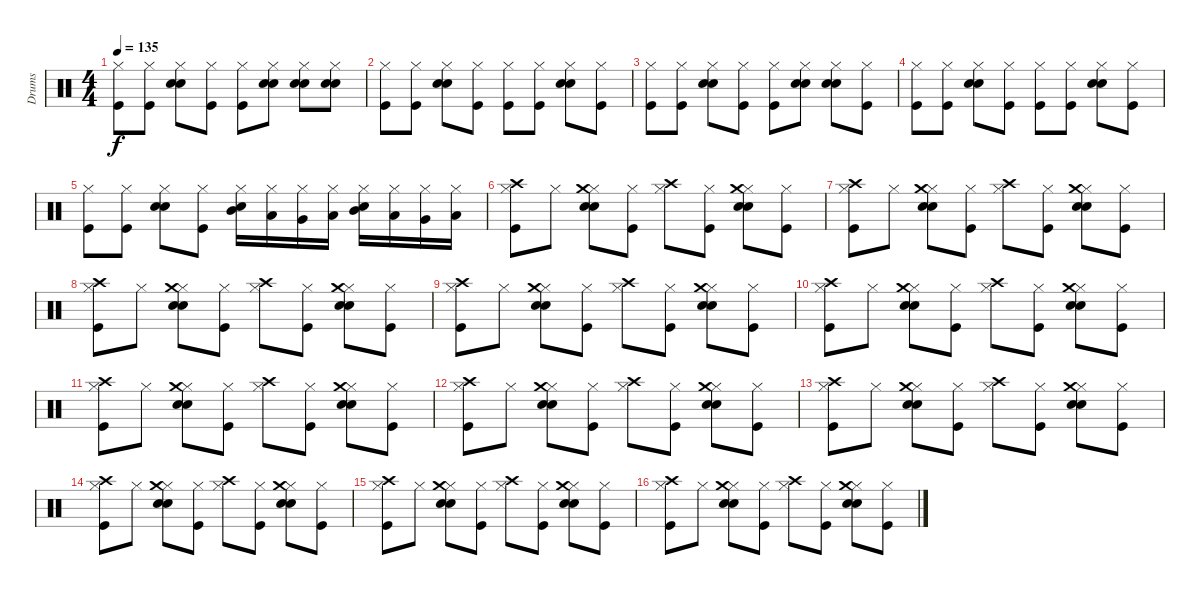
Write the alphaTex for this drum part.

\track ("Drums" "Drums") {instrument percussion}
\staff {score}
\articulation defaults
\ts (4 4)
\tempo 135
\clef neutral
\ks c
("Hi-Hat (closed)" "Kick (hit)").8{dy f} ("Hi-Hat (closed)" "Kick (hit)").8 ("Hi-Hat (closed)" "Hand Clap (hit)" "Electric Snare (hit)").8 ("Hi-Hat (closed)" "Kick (hit)").8 ("Hi-Hat (closed)" "Kick (hit)").8 ("Hi-Hat (closed)" "Hand Clap (hit)" "Snare (hit) 2").8 ("Hi-Hat (closed)" "Hand Clap (hit)" "Snare (hit) 2").8 ("Hi-Hat (closed)" "Hand Clap (hit)" "Snare (hit) 2").8 |
("Hi-Hat (closed)" "Kick (hit)").8 ("Hi-Hat (closed)" "Kick (hit)").8 ("Hi-Hat (closed)" "Hand Clap (hit)" "Electric Snare (hit)").8 ("Hi-Hat (closed)" "Kick (hit)").8 ("Hi-Hat (closed)" "Kick (hit)").8 ("Hi-Hat (closed)" "Kick (hit)").8 ("Hi-Hat (closed)" "Hand Clap (hit)" "Electric Snare (hit)").8 ("Hi-Hat (closed)" "Kick (hit)").8 |
("Hi-Hat (closed)" "Kick (hit)").8 ("Hi-Hat (closed)" "Kick (hit)").8 ("Hi-Hat (closed)" "Hand Clap (hit)" "Electric Snare (hit)").8 ("Hi-Hat (closed)" "Kick (hit)").8 ("Hi-Hat (closed)" "Kick (hit)").8 ("Hi-Hat (closed)" "Hand Clap (hit)" "Snare (hit) 2").8 ("Hi-Hat (closed)" "Hand Clap (hit)" "Snare (hit) 2").8 ("Hi-Hat (closed)" "Kick (hit)").8 |
("Hi-Hat (closed)" "Kick (hit)").8 ("Hi-Hat (closed)" "Kick (hit)").8 ("Hi-Hat (closed)" "Hand Clap (hit)" "Electric Snare (hit)").8 ("Hi-Hat (closed)" "Kick (hit)").8 ("Hi-Hat (closed)" "Kick (hit)").8 ("Hi-Hat (closed)" "Kick (hit)").8 ("Hi-Hat (closed)" "Hand Clap (hit)" "Electric Snare (hit)").8 ("Hi-Hat (closed)" "Kick (hit)").8 |
("Hi-Hat (closed)" "Kick (hit)").8 ("Hi-Hat (closed)" "Kick (hit)").8 ("Hi-Hat (closed)" "Hand Clap (hit)" "Electric Snare (hit)").8 ("Hi-Hat (closed)" "Kick (hit)").8 ("Hi-Hat (closed)" "Mid Tom (hit)" "Snare (hit) 2").16 ("Hi-Hat (closed)" "Low Tom (hit)").16 ("Hi-Hat (closed)" "Very Low Tom (hit)").16 ("Hi-Hat (closed)" "Low Floor Tom (hit)").16 ("Hi-Hat (closed)" "Mid Tom (hit)" "Snare (hit) 2").16 ("Hi-Hat (closed)" "Low Tom (hit)").16 ("Hi-Hat (closed)" "Very Low Tom (hit)").16 ("Hi-Hat (closed)" "Low Floor Tom (hit)").16 |
("Hi-Hat (closed)" "Crash high (hit)" "Kick (hit)").8 "Hi-Hat (closed)".8 ("Hi-Hat (closed)" "Crash medium (hit)" "Hand Clap (hit)" "Snare (hit) 2").8 ("Hi-Hat (closed)" "Kick (hit)").8 ("Hi-Hat (closed)" "Crash high (hit)").8 ("Hi-Hat (closed)" "Kick (hit)").8 ("Hi-Hat (closed)" "Crash medium (hit)" "Hand Clap (hit)" "Snare (hit) 2").8 ("Hi-Hat (closed)" "Kick (hit)").8 |
("Hi-Hat (closed)" "Crash high (hit)" "Kick (hit)").8 "Hi-Hat (closed)".8 ("Hi-Hat (closed)" "Crash medium (hit)" "Hand Clap (hit)" "Snare (hit) 2").8 ("Hi-Hat (closed)" "Kick (hit)").8 ("Hi-Hat (closed)" "Crash high (hit)").8 ("Hi-Hat (closed)" "Kick (hit)").8 ("Hi-Hat (closed)" "Crash medium (hit)" "Hand Clap (hit)" "Snare (hit) 2").8 ("Hi-Hat (closed)" "Kick (hit)").8 |
("Hi-Hat (closed)" "Crash high (hit)" "Kick (hit)").8 "Hi-Hat (closed)".8 ("Hi-Hat (closed)" "Crash medium (hit)" "Hand Clap (hit)" "Snare (hit) 2").8 ("Hi-Hat (closed)" "Kick (hit)").8 ("Hi-Hat (closed)" "Crash high (hit)").8 ("Hi-Hat (closed)" "Kick (hit)").8 ("Hi-Hat (closed)" "Crash medium (hit)" "Hand Clap (hit)" "Snare (hit) 2").8 ("Hi-Hat (closed)" "Kick (hit)").8 |
("Hi-Hat (closed)" "Crash high (hit)" "Kick (hit)").8 "Hi-Hat (closed)".8 ("Hi-Hat (closed)" "Crash medium (hit)" "Hand Clap (hit)" "Snare (hit) 2").8 ("Hi-Hat (closed)" "Kick (hit)").8 ("Hi-Hat (closed)" "Crash high (hit)").8 ("Hi-Hat (closed)" "Kick (hit)").8 ("Hi-Hat (closed)" "Crash medium (hit)" "Hand Clap (hit)" "Snare (hit) 2").8 ("Hi-Hat (closed)" "Kick (hit)").8 |
("Hi-Hat (closed)" "Crash high (hit)" "Kick (hit)").8 "Hi-Hat (closed)".8 ("Hi-Hat (closed)" "Crash medium (hit)" "Hand Clap (hit)" "Snare (hit) 2").8 ("Hi-Hat (closed)" "Kick (hit)").8 ("Hi-Hat (closed)" "Crash high (hit)").8 ("Hi-Hat (closed)" "Kick (hit)").8 ("Hi-Hat (closed)" "Crash medium (hit)" "Hand Clap (hit)" "Snare (hit) 2").8 ("Hi-Hat (closed)" "Kick (hit)").8 |
("Hi-Hat (closed)" "Crash high (hit)" "Kick (hit)").8 "Hi-Hat (closed)".8 ("Hi-Hat (closed)" "Crash medium (hit)" "Hand Clap (hit)" "Snare (hit) 2").8 ("Hi-Hat (closed)" "Kick (hit)").8 ("Hi-Hat (closed)" "Crash high (hit)").8 ("Hi-Hat (closed)" "Kick (hit)").8 ("Hi-Hat (closed)" "Crash medium (hit)" "Hand Clap (hit)" "Snare (hit) 2").8 ("Hi-Hat (closed)" "Kick (hit)").8 |
("Hi-Hat (closed)" "Crash high (hit)" "Kick (hit)").8 "Hi-Hat (closed)".8 ("Hi-Hat (closed)" "Crash medium (hit)" "Hand Clap (hit)" "Snare (hit) 2").8 ("Hi-Hat (closed)" "Kick (hit)").8 ("Hi-Hat (closed)" "Crash high (hit)").8 ("Hi-Hat (closed)" "Kick (hit)").8 ("Hi-Hat (closed)" "Crash medium (hit)" "Hand Clap (hit)" "Snare (hit) 2").8 ("Hi-Hat (closed)" "Kick (hit)").8 |
("Hi-Hat (closed)" "Crash high (hit)" "Kick (hit)").8 "Hi-Hat (closed)".8 ("Hi-Hat (closed)" "Crash medium (hit)" "Hand Clap (hit)" "Snare (hit) 2").8 ("Hi-Hat (closed)" "Kick (hit)").8 ("Hi-Hat (closed)" "Crash high (hit)").8 ("Hi-Hat (closed)" "Kick (hit)").8 ("Hi-Hat (closed)" "Crash medium (hit)" "Hand Clap (hit)" "Snare (hit) 2").8 ("Hi-Hat (closed)" "Kick (hit)").8 |
("Hi-Hat (closed)" "Crash high (hit)" "Kick (hit)").8 "Hi-Hat (closed)".8 ("Hi-Hat (closed)" "Crash medium (hit)" "Hand Clap (hit)" "Snare (hit) 2").8 ("Hi-Hat (closed)" "Kick (hit)").8 ("Hi-Hat (closed)" "Crash high (hit)").8 ("Hi-Hat (closed)" "Kick (hit)").8 ("Hi-Hat (closed)" "Crash medium (hit)" "Hand Clap (hit)" "Snare (hit) 2").8 ("Hi-Hat (closed)" "Kick (hit)").8 |
("Hi-Hat (closed)" "Crash high (hit)" "Kick (hit)").8 "Hi-Hat (closed)".8 ("Hi-Hat (closed)" "Crash medium (hit)" "Hand Clap (hit)" "Snare (hit) 2").8 ("Hi-Hat (closed)" "Kick (hit)").8 ("Hi-Hat (closed)" "Crash high (hit)").8 ("Hi-Hat (closed)" "Kick (hit)").8 ("Hi-Hat (closed)" "Crash medium (hit)" "Hand Clap (hit)" "Snare (hit) 2").8 ("Hi-Hat (closed)" "Kick (hit)").8 |
("Hi-Hat (closed)" "Crash high (hit)" "Kick (hit)").8 "Hi-Hat (closed)".8 ("Hi-Hat (closed)" "Crash medium (hit)" "Hand Clap (hit)" "Snare (hit) 2").8 ("Hi-Hat (closed)" "Kick (hit)").8 ("Hi-Hat (closed)" "Crash high (hit)").8 ("Hi-Hat (closed)" "Kick (hit)").8 ("Hi-Hat (closed)" "Crash medium (hit)" "Hand Clap (hit)" "Snare (hit) 2").8 ("Hi-Hat (closed)" "Kick (hit)").8
